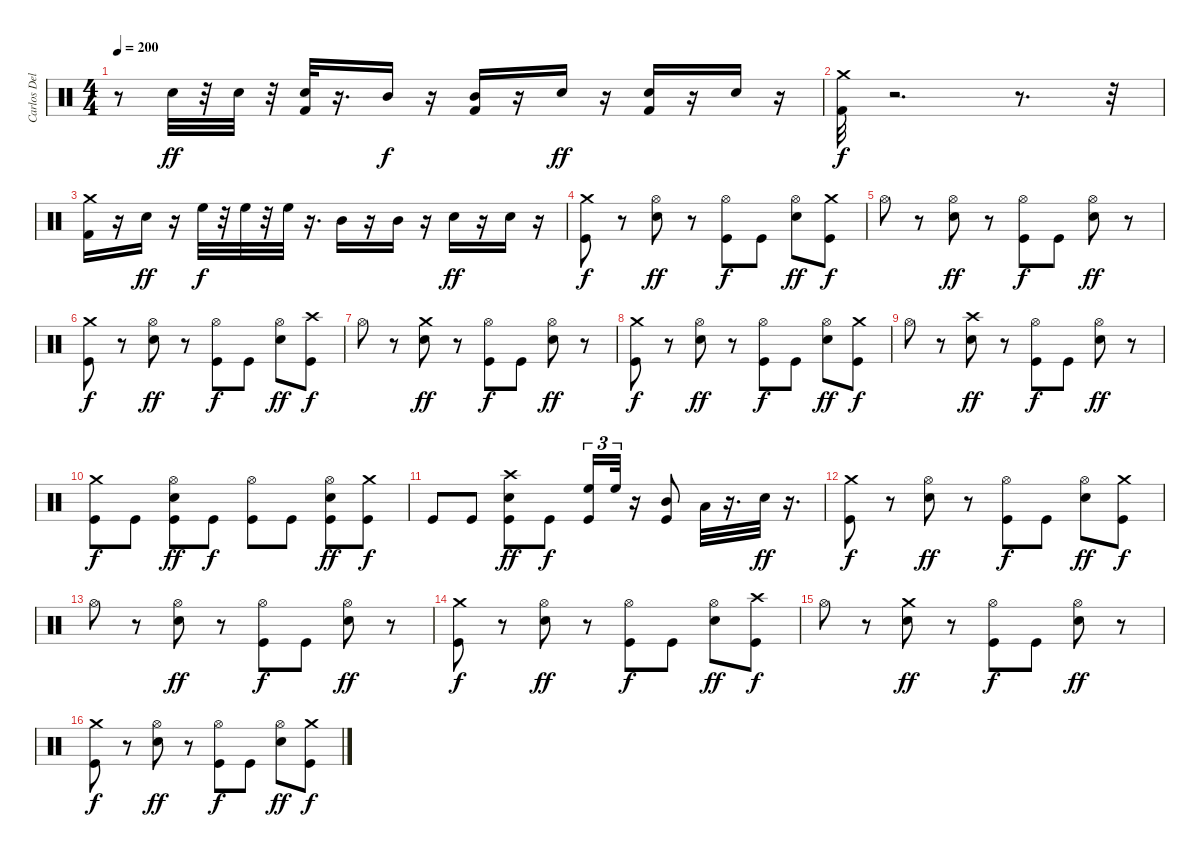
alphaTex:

\track ("Carlos Delgado" "Carlos Del") {instrument percussion}
\staff {score}
\articulation defaults
\ts (4 4)
\tempo 200
\clef neutral
\ks c
r.8{dy f} "Electric Snare (hit)".32{dy ff} r.32 "Electric Snare (hit)".32 r.32 ("Kick (hit) 2" "Electric Snare (hit)").32 r.16{d} "Mid Tom (hit)".16{dy f} r.16 ("Kick (hit) 2" "Mid Tom (hit)").16 r.16 "Electric Snare (hit)".16{dy ff} r.16 ("Kick (hit) 2" "Electric Snare (hit)").16 r.16 "Electric Snare (hit)".16 r.16 |
("Kick (hit) 2" "Crash medium (hit)").32{dy f} r.2{d} r.8{d} r.32 |
("Crash medium (hit)" "Kick (hit) 2").16 r.16 "Electric Snare (hit)".16{dy ff} r.16 "High Floor Tom (hit)".32{dy f} r.32 "High Floor Tom (hit)".32 r.32 "High Floor Tom (hit)".32 r.16{d} "Mid Tom (hit)".16 r.16 "Mid Tom (hit)".16 r.16 "Electric Snare (hit)".16{dy ff} r.16 "Electric Snare (hit)".16 r.16 |
("Kick (hit)" "Crash medium (hit)").8{dy f} r.8 ("Electric Snare (hit)" "Hi-Hat (open)").8{dy ff} r.8 ("Kick (hit)" "Hi-Hat (open)").8{dy f} "Kick (hit)".8 ("Hi-Hat (open)" "Electric Snare (hit)").8{dy ff} ("Crash medium (hit)" "Kick (hit)").8{dy f} |
"Hi-Hat (open)".8 r.8 ("Hi-Hat (open)" "Electric Snare (hit)").8{dy ff} r.8 ("Kick (hit)" "Hi-Hat (open)").8{dy f} "Kick (hit)".8 ("Hi-Hat (open)" "Electric Snare (hit)").8{dy ff} r.8 |
("Crash medium (hit)" "Kick (hit)").8{dy f} r.8 ("Electric Snare (hit)" "Hi-Hat (open)").8{dy ff} r.8 ("Hi-Hat (open)" "Kick (hit)").8{dy f} "Kick (hit)".8 ("Hi-Hat (open)" "Electric Snare (hit)").8{dy ff} ("Crash high (hit)" "Kick (hit)").8{dy f} |
"Hi-Hat (open)".8 r.8 ("Electric Snare (hit)" "Crash medium (hit)").8{dy ff} r.8 ("Hi-Hat (open)" "Kick (hit)").8{dy f} "Kick (hit)".8 ("Hi-Hat (open)" "Electric Snare (hit)").8{dy ff} r.8 |
("Crash medium (hit)" "Kick (hit)").8{dy f} r.8 ("Electric Snare (hit)" "Hi-Hat (open)").8{dy ff} r.8 ("Hi-Hat (open)" "Kick (hit)").8{dy f} "Kick (hit)".8 ("Electric Snare (hit)" "Hi-Hat (open)").8{dy ff} ("Crash medium (hit)" "Kick (hit)").8{dy f} |
"Hi-Hat (open)".8 r.8 ("Crash high (hit)" "Electric Snare (hit)").8{dy ff} r.8 ("Kick (hit)" "Hi-Hat (open)").8{dy f} "Kick (hit)".8 ("Electric Snare (hit)" "Hi-Hat (open)").8{dy ff} r.8 |
("Crash medium (hit)" "Kick (hit)").8{dy f} "Kick (hit)".8 ("Electric Snare (hit)" "Kick (hit)" "Hi-Hat (open)").8{dy ff} "Kick (hit)".8{dy f} ("Kick (hit)" "Hi-Hat (open)").8 "Kick (hit)".8 ("Kick (hit)" "Hi-Hat (open)" "Electric Snare (hit)").8{dy ff} ("Kick (hit)" "Crash medium (hit)").8{dy f} |
"Kick (hit)".8 "Kick (hit)".8 ("Crash high (hit)" "Electric Snare (hit)" "Kick (hit)").8{dy ff} "Kick (hit)".8{dy f} ("Kick (hit)" "High Floor Tom (hit)").16{tu (3 2)} "High Floor Tom (hit)".32{tu (3 2)} r.16 ("Kick (hit)" "Mid Tom (hit)").8 "Low Tom (hit)".32 r.16{d} "Electric Snare (hit)".32{dy ff} r.16{d} |
("Crash medium (hit)" "Kick (hit)").8{dy f} r.8 ("Electric Snare (hit)" "Hi-Hat (open)").8{dy ff} r.8 ("Hi-Hat (open)" "Kick (hit)").8{dy f} "Kick (hit)".8 ("Hi-Hat (open)" "Electric Snare (hit)").8{dy ff} ("Crash medium (hit)" "Kick (hit)").8{dy f} |
"Hi-Hat (open)".8 r.8 ("Electric Snare (hit)" "Hi-Hat (open)").8{dy ff} r.8 ("Hi-Hat (open)" "Kick (hit)").8{dy f} "Kick (hit)".8 ("Hi-Hat (open)" "Electric Snare (hit)").8{dy ff} r.8 |
("Crash medium (hit)" "Kick (hit)").8{dy f} r.8 ("Electric Snare (hit)" "Hi-Hat (open)").8{dy ff} r.8 ("Kick (hit)" "Hi-Hat (open)").8{dy f} "Kick (hit)".8 ("Hi-Hat (open)" "Electric Snare (hit)").8{dy ff} ("Crash high (hit)" "Kick (hit)").8{dy f} |
"Hi-Hat (open)".8 r.8 ("Crash medium (hit)" "Electric Snare (hit)").8{dy ff} r.8 ("Kick (hit)" "Hi-Hat (open)").8{dy f} "Kick (hit)".8 ("Hi-Hat (open)" "Electric Snare (hit)").8{dy ff} r.8 |
("Crash medium (hit)" "Kick (hit)").8{dy f} r.8 ("Hi-Hat (open)" "Electric Snare (hit)").8{dy ff} r.8 ("Hi-Hat (open)" "Kick (hit)").8{dy f} "Kick (hit)".8 ("Hi-Hat (open)" "Electric Snare (hit)").8{dy ff} ("Crash medium (hit)" "Kick (hit)").8{dy f}
